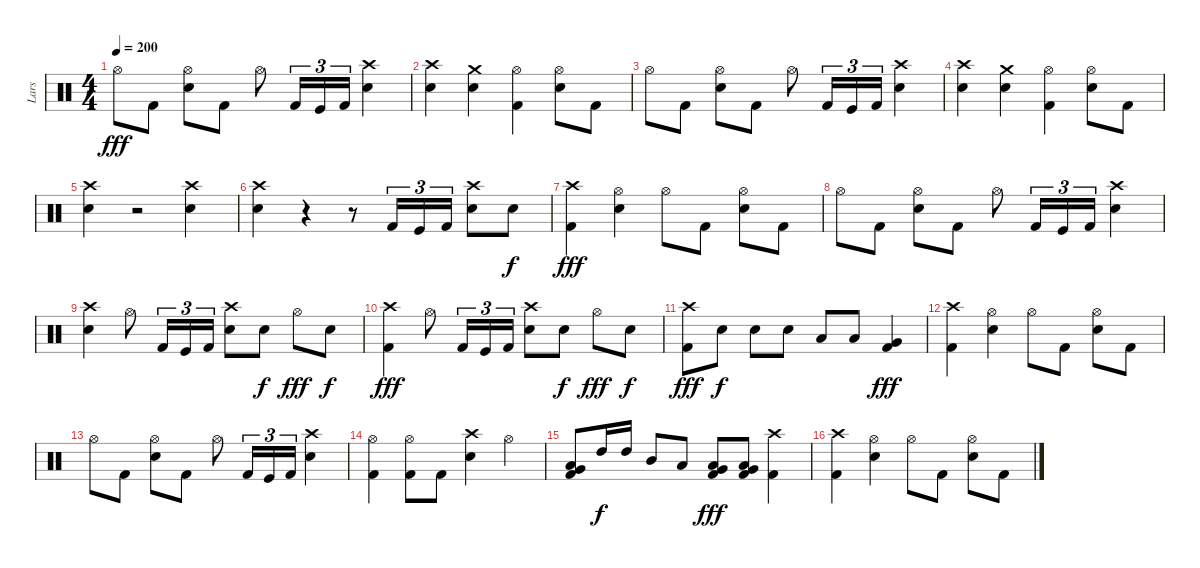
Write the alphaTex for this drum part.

\track ("Lars" "Lars") {instrument percussion}
\staff {score}
\articulation defaults
\ts (4 4)
\tempo 200
\clef neutral
\ks c "Hi-Hat (open)".8{dy fff} "Kick (hit) 2".8
("Hi-Hat (open)" "Snare (hit) 2").8 "Kick (hit) 2".8 "Hi-Hat (open)".8 "Kick (hit) 2".16{tu (3 2)} "Kick (hit)".16{tu (3 2)} "Kick (hit) 2".16{tu (3 2)} ("Crash high (hit)" "Snare (hit) 2").4 |
("Crash high (hit)" "Snare (hit) 2").4 ("Crash medium (hit)" "Snare (hit) 2").4 ("Hi-Hat (open)" "Kick (hit) 2").4 ("Hi-Hat (open)" "Snare (hit) 2").8 "Kick (hit) 2".8 |
"Hi-Hat (open)".8 "Kick (hit) 2".8 ("Hi-Hat (open)" "Snare (hit) 2").8 "Kick (hit) 2".8 "Hi-Hat (open)".8 "Kick (hit) 2".16{tu (3 2)} "Kick (hit)".16{tu (3 2)} "Kick (hit) 2".16{tu (3 2)} ("Crash high (hit)" "Snare (hit) 2").4 |
("Crash high (hit)" "Snare (hit) 2").4 ("Crash medium (hit)" "Snare (hit) 2").4 ("Hi-Hat (open)" "Kick (hit) 2").4 ("Hi-Hat (open)" "Snare (hit) 2").8 "Kick (hit) 2".8 |
("Crash high (hit)" "Snare (hit) 2").4 r.2 ("Crash high (hit)" "Snare (hit) 2").4 |
("Crash high (hit)" "Snare (hit) 2").4 r.4 r.8 "Kick (hit) 2".16{tu (3 2)} "Kick (hit)".16{tu (3 2)} "Kick (hit) 2".16{tu (3 2)} ("Crash high (hit)" "Snare (hit) 2").8 "Snare (hit) 2".8{dy f} |
("Crash high (hit)" "Kick (hit) 2").4{dy fff} ("Hi-Hat (open)" "Snare (hit) 2").4 "Hi-Hat (open)".8 "Kick (hit) 2".8 ("Hi-Hat (open)" "Snare (hit) 2").8 "Kick (hit) 2".8 |
"Hi-Hat (open)".8 "Kick (hit) 2".8 ("Hi-Hat (open)" "Snare (hit) 2").8 "Kick (hit) 2".8 "Hi-Hat (open)".8 "Kick (hit) 2".16{tu (3 2)} "Kick (hit)".16{tu (3 2)} "Kick (hit) 2".16{tu (3 2)} ("Crash high (hit)" "Snare (hit) 2").4 |
("Crash high (hit)" "Snare (hit) 2").4 "Hi-Hat (open)".8 "Kick (hit) 2".16{tu (3 2)} "Kick (hit)".16{tu (3 2)} "Kick (hit) 2".16{tu (3 2)} ("Crash high (hit)" "Snare (hit) 2").8 "Snare (hit) 2".8{dy f} "Hi-Hat (open)".8{dy fff} "Snare (hit) 2".8{dy f} |
("Crash high (hit)" "Kick (hit) 2").4{dy fff} "Hi-Hat (open)".8 "Kick (hit) 2".16{tu (3 2)} "Kick (hit)".16{tu (3 2)} "Kick (hit) 2".16{tu (3 2)} ("Crash high (hit)" "Snare (hit) 2").8 "Snare (hit) 2".8{dy f} "Hi-Hat (open)".8{dy fff} "Snare (hit) 2".8{dy f} |
("Crash high (hit)" "Kick (hit) 2").8{dy fff} "Snare (hit) 2".8{dy f} "Snare (hit) 2".8 "Snare (hit) 2".8 "Low Tom (hit)".8 "Low Tom (hit)".8 ("Very Low Tom (hit)" "Kick (hit) 2").4{dy fff} |
("Crash high (hit)" "Kick (hit) 2").4 ("Hi-Hat (open)" "Snare (hit) 2").4 "Hi-Hat (open)".8 "Kick (hit) 2".8 ("Hi-Hat (open)" "Snare (hit) 2").8 "Kick (hit) 2".8 |
"Hi-Hat (open)".8 "Kick (hit) 2".8 ("Hi-Hat (open)" "Snare (hit) 2").8 "Kick (hit) 2".8 "Hi-Hat (open)".8 "Kick (hit) 2".16{tu (3 2)} "Kick (hit)".16{tu (3 2)} "Kick (hit) 2".16{tu (3 2)} ("Crash high (hit)" "Snare (hit) 2").4 |
("Hi-Hat (open)" "Kick (hit) 2").4 ("Hi-Hat (open)" "Kick (hit) 2").8 "Kick (hit) 2".8 ("Crash high (hit)" "Snare (hit) 2").4 "Hi-Hat (open)".4 |
("Low Tom (hit)" "Very Low Tom (hit)" "Kick (hit) 2").8 "High Tom (hit)".16{dy f} "High Tom (hit)".16 "Mid Tom (hit)".8 "Low Tom (hit)".8 ("Very Low Tom (hit)" "Low Floor Tom (hit)" "Kick (hit) 2").8{dy fff} ("Very Low Tom (hit)" "Low Floor Tom (hit)" "Kick (hit) 2").8 ("Crash high (hit)" "Kick (hit) 2").4 |
("Crash high (hit)" "Kick (hit) 2").4 ("Hi-Hat (open)" "Snare (hit) 2").4 "Hi-Hat (open)".8 "Kick (hit) 2".8 ("Hi-Hat (open)" "Snare (hit) 2").8 "Kick (hit) 2".8
